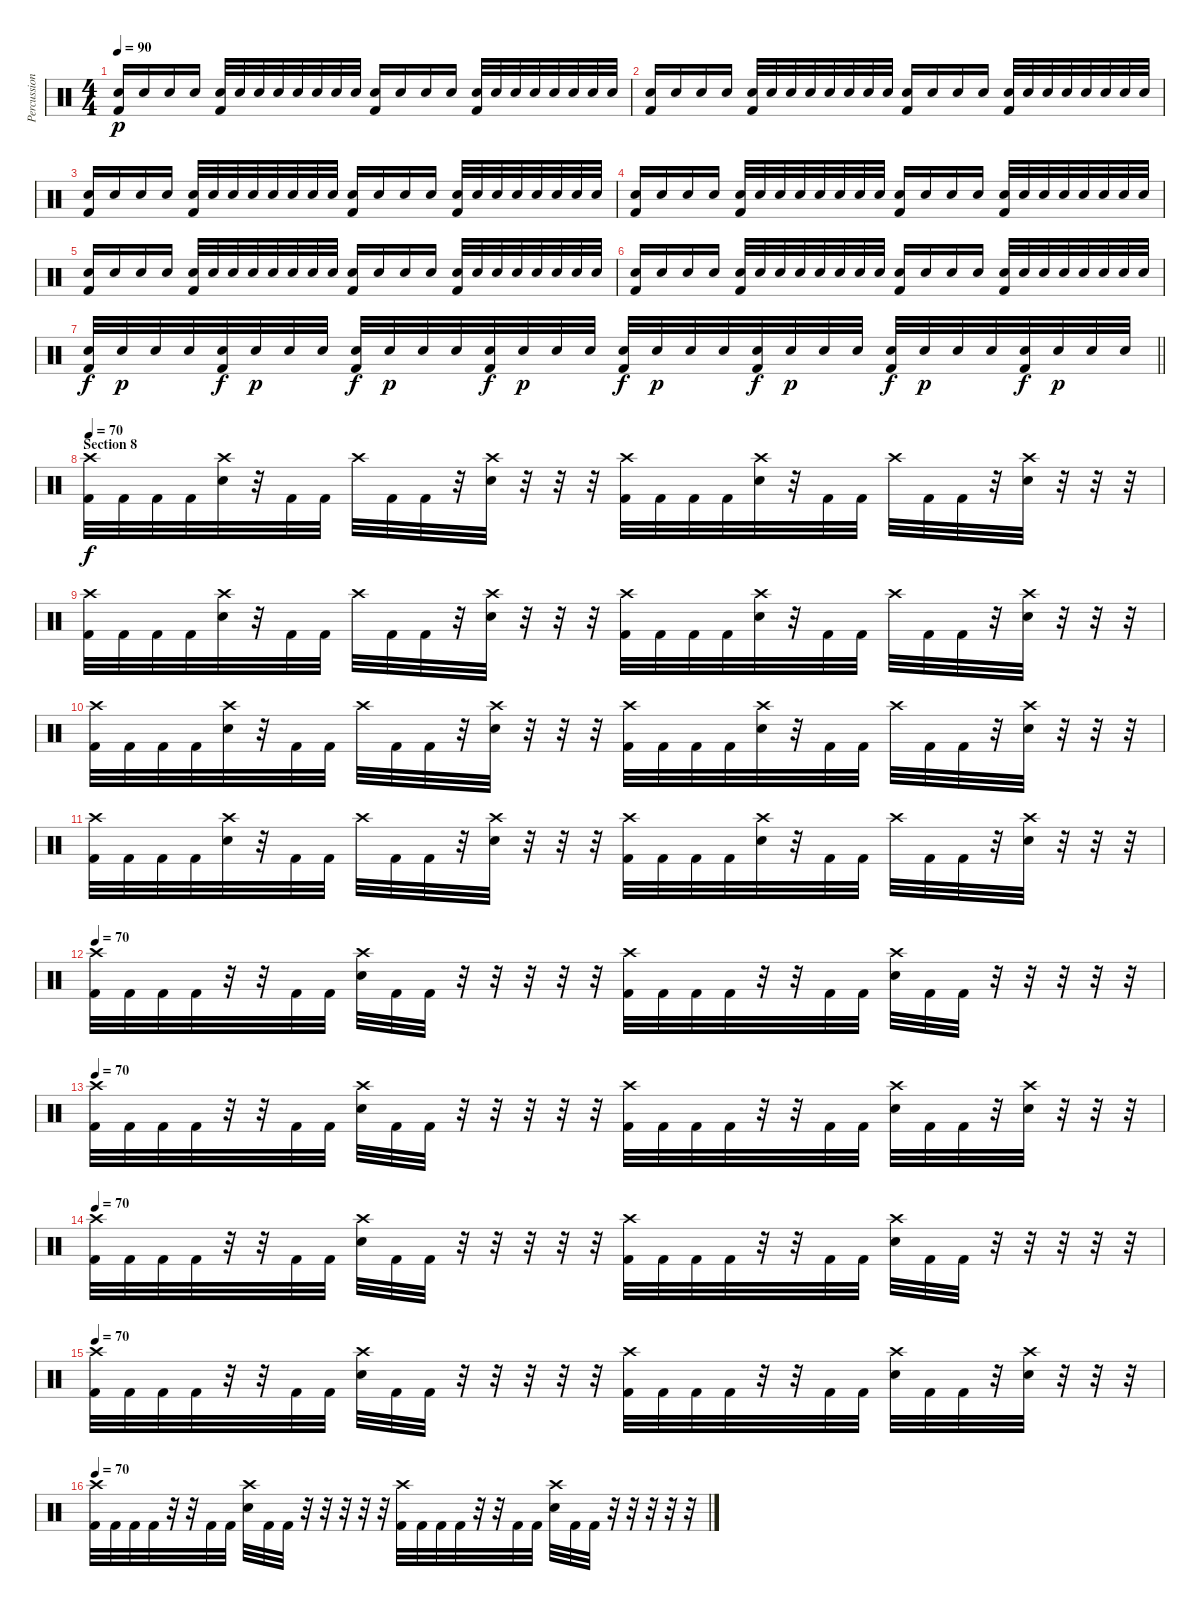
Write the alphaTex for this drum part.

\track ("Percussion" "Percussion") {instrument percussion}
\staff {score}
\articulation defaults
\ts (4 4)
\tempo 90
\clef neutral
\ks c
("Electric Snare (hit)" "Kick (hit) 2").16{dy p} "Electric Snare (hit)".16 "Electric Snare (hit)".16 "Electric Snare (hit)".16 ("Electric Snare (hit)" "Kick (hit) 2").32 "Electric Snare (hit)".32 "Electric Snare (hit)".32 "Electric Snare (hit)".32 "Electric Snare (hit)".32 "Electric Snare (hit)".32 "Electric Snare (hit)".32 "Electric Snare (hit)".32 ("Electric Snare (hit)" "Kick (hit) 2").16 "Electric Snare (hit)".16 "Electric Snare (hit)".16 "Electric Snare (hit)".16 ("Electric Snare (hit)" "Kick (hit) 2").32 "Electric Snare (hit)".32 "Electric Snare (hit)".32 "Electric Snare (hit)".32 "Electric Snare (hit)".32 "Electric Snare (hit)".32 "Electric Snare (hit)".32 "Electric Snare (hit)".32 |
("Electric Snare (hit)" "Kick (hit) 2").16 "Electric Snare (hit)".16 "Electric Snare (hit)".16 "Electric Snare (hit)".16 ("Electric Snare (hit)" "Kick (hit) 2").32 "Electric Snare (hit)".32 "Electric Snare (hit)".32 "Electric Snare (hit)".32 "Electric Snare (hit)".32 "Electric Snare (hit)".32 "Electric Snare (hit)".32 "Electric Snare (hit)".32 ("Electric Snare (hit)" "Kick (hit) 2").16 "Electric Snare (hit)".16 "Electric Snare (hit)".16 "Electric Snare (hit)".16 ("Electric Snare (hit)" "Kick (hit) 2").32 "Electric Snare (hit)".32 "Electric Snare (hit)".32 "Electric Snare (hit)".32 "Electric Snare (hit)".32 "Electric Snare (hit)".32 "Electric Snare (hit)".32 "Electric Snare (hit)".32 |
("Electric Snare (hit)" "Kick (hit) 2").16 "Electric Snare (hit)".16 "Electric Snare (hit)".16 "Electric Snare (hit)".16 ("Electric Snare (hit)" "Kick (hit) 2").32 "Electric Snare (hit)".32 "Electric Snare (hit)".32 "Electric Snare (hit)".32 "Electric Snare (hit)".32 "Electric Snare (hit)".32 "Electric Snare (hit)".32 "Electric Snare (hit)".32 ("Electric Snare (hit)" "Kick (hit) 2").16 "Electric Snare (hit)".16 "Electric Snare (hit)".16 "Electric Snare (hit)".16 ("Electric Snare (hit)" "Kick (hit) 2").32 "Electric Snare (hit)".32 "Electric Snare (hit)".32 "Electric Snare (hit)".32 "Electric Snare (hit)".32 "Electric Snare (hit)".32 "Electric Snare (hit)".32 "Electric Snare (hit)".32 |
("Electric Snare (hit)" "Kick (hit) 2").16 "Electric Snare (hit)".16 "Electric Snare (hit)".16 "Electric Snare (hit)".16 ("Electric Snare (hit)" "Kick (hit) 2").32 "Electric Snare (hit)".32 "Electric Snare (hit)".32 "Electric Snare (hit)".32 "Electric Snare (hit)".32 "Electric Snare (hit)".32 "Electric Snare (hit)".32 "Electric Snare (hit)".32 ("Electric Snare (hit)" "Kick (hit) 2").16 "Electric Snare (hit)".16 "Electric Snare (hit)".16 "Electric Snare (hit)".16 ("Electric Snare (hit)" "Kick (hit) 2").32 "Electric Snare (hit)".32 "Electric Snare (hit)".32 "Electric Snare (hit)".32 "Electric Snare (hit)".32 "Electric Snare (hit)".32 "Electric Snare (hit)".32 "Electric Snare (hit)".32 |
("Electric Snare (hit)" "Kick (hit) 2").16 "Electric Snare (hit)".16 "Electric Snare (hit)".16 "Electric Snare (hit)".16 ("Electric Snare (hit)" "Kick (hit) 2").32 "Electric Snare (hit)".32 "Electric Snare (hit)".32 "Electric Snare (hit)".32 "Electric Snare (hit)".32 "Electric Snare (hit)".32 "Electric Snare (hit)".32 "Electric Snare (hit)".32 ("Electric Snare (hit)" "Kick (hit) 2").16 "Electric Snare (hit)".16 "Electric Snare (hit)".16 "Electric Snare (hit)".16 ("Electric Snare (hit)" "Kick (hit) 2").32 "Electric Snare (hit)".32 "Electric Snare (hit)".32 "Electric Snare (hit)".32 "Electric Snare (hit)".32 "Electric Snare (hit)".32 "Electric Snare (hit)".32 "Electric Snare (hit)".32 |
("Electric Snare (hit)" "Kick (hit) 2").16 "Electric Snare (hit)".16 "Electric Snare (hit)".16 "Electric Snare (hit)".16 ("Electric Snare (hit)" "Kick (hit) 2").32 "Electric Snare (hit)".32 "Electric Snare (hit)".32 "Electric Snare (hit)".32 "Electric Snare (hit)".32 "Electric Snare (hit)".32 "Electric Snare (hit)".32 "Electric Snare (hit)".32 ("Electric Snare (hit)" "Kick (hit) 2").16 "Electric Snare (hit)".16 "Electric Snare (hit)".16 "Electric Snare (hit)".16 ("Electric Snare (hit)" "Kick (hit) 2").32 "Electric Snare (hit)".32 "Electric Snare (hit)".32 "Electric Snare (hit)".32 "Electric Snare (hit)".32 "Electric Snare (hit)".32 "Electric Snare (hit)".32 "Electric Snare (hit)".32 |
\barLineRight lightlight
("Electric Snare (hit)" "Kick (hit) 2").32{dy f} "Electric Snare (hit)".32{dy p} "Electric Snare (hit)".32 "Electric Snare (hit)".32 ("Electric Snare (hit)" "Kick (hit) 2").32{dy f} "Electric Snare (hit)".32{dy p} "Electric Snare (hit)".32 "Electric Snare (hit)".32 ("Electric Snare (hit)" "Kick (hit) 2").32{dy f} "Electric Snare (hit)".32{dy p} "Electric Snare (hit)".32 "Electric Snare (hit)".32 ("Electric Snare (hit)" "Kick (hit) 2").32{dy f} "Electric Snare (hit)".32{dy p} "Electric Snare (hit)".32 "Electric Snare (hit)".32 ("Electric Snare (hit)" "Kick (hit) 2").32{dy f} "Electric Snare (hit)".32{dy p} "Electric Snare (hit)".32 "Electric Snare (hit)".32 ("Electric Snare (hit)" "Kick (hit) 2").32{dy f} "Electric Snare (hit)".32{dy p} "Electric Snare (hit)".32 "Electric Snare (hit)".32 ("Electric Snare (hit)" "Kick (hit) 2").32{dy f} "Electric Snare (hit)".32{dy p} "Electric Snare (hit)".32 "Electric Snare (hit)".32 ("Electric Snare (hit)" "Kick (hit) 2").32{dy f} "Electric Snare (hit)".32{dy p} "Electric Snare (hit)".32 "Electric Snare (hit)".32 |
\section ("" "Section 8")
\tempo 70
("Crash high (hit)" "Kick (hit) 2").32{dy f} "Kick (hit) 2".32 "Kick (hit) 2".32 "Kick (hit) 2".32 ("Crash high (hit)" "Electric Snare (hit)").32 r.32 "Kick (hit) 2".32 "Kick (hit) 2".32 "Crash high (hit)".32 "Kick (hit) 2".32 "Kick (hit) 2".32 r.32 ("Crash high (hit)" "Electric Snare (hit)").32 r.32 r.32 r.32 ("Crash high (hit)" "Kick (hit) 2").32 "Kick (hit) 2".32 "Kick (hit) 2".32 "Kick (hit) 2".32 ("Crash high (hit)" "Electric Snare (hit)").32 r.32 "Kick (hit) 2".32 "Kick (hit) 2".32 "Crash high (hit)".32 "Kick (hit) 2".32 "Kick (hit) 2".32 r.32 ("Crash high (hit)" "Electric Snare (hit)").32 r.32 r.32 r.32 |
("Crash high (hit)" "Kick (hit) 2").32 "Kick (hit) 2".32 "Kick (hit) 2".32 "Kick (hit) 2".32 ("Crash high (hit)" "Electric Snare (hit)").32 r.32 "Kick (hit) 2".32 "Kick (hit) 2".32 "Crash high (hit)".32 "Kick (hit) 2".32 "Kick (hit) 2".32 r.32 ("Crash high (hit)" "Electric Snare (hit)").32 r.32 r.32 r.32 ("Crash high (hit)" "Kick (hit) 2").32 "Kick (hit) 2".32 "Kick (hit) 2".32 "Kick (hit) 2".32 ("Crash high (hit)" "Electric Snare (hit)").32 r.32 "Kick (hit) 2".32 "Kick (hit) 2".32 "Crash high (hit)".32 "Kick (hit) 2".32 "Kick (hit) 2".32 r.32 ("Crash high (hit)" "Electric Snare (hit)").32 r.32 r.32 r.32 |
("Crash high (hit)" "Kick (hit) 2").32 "Kick (hit) 2".32 "Kick (hit) 2".32 "Kick (hit) 2".32 ("Crash high (hit)" "Electric Snare (hit)").32 r.32 "Kick (hit) 2".32 "Kick (hit) 2".32 "Crash high (hit)".32 "Kick (hit) 2".32 "Kick (hit) 2".32 r.32 ("Crash high (hit)" "Electric Snare (hit)").32 r.32 r.32 r.32 ("Crash high (hit)" "Kick (hit) 2").32 "Kick (hit) 2".32 "Kick (hit) 2".32 "Kick (hit) 2".32 ("Crash high (hit)" "Electric Snare (hit)").32 r.32 "Kick (hit) 2".32 "Kick (hit) 2".32 "Crash high (hit)".32 "Kick (hit) 2".32 "Kick (hit) 2".32 r.32 ("Crash high (hit)" "Electric Snare (hit)").32 r.32 r.32 r.32 |
("Crash high (hit)" "Kick (hit) 2").32 "Kick (hit) 2".32 "Kick (hit) 2".32 "Kick (hit) 2".32 ("Crash high (hit)" "Electric Snare (hit)").32 r.32 "Kick (hit) 2".32 "Kick (hit) 2".32 "Crash high (hit)".32 "Kick (hit) 2".32 "Kick (hit) 2".32 r.32 ("Crash high (hit)" "Electric Snare (hit)").32 r.32 r.32 r.32 ("Crash high (hit)" "Kick (hit) 2").32 "Kick (hit) 2".32 "Kick (hit) 2".32 "Kick (hit) 2".32 ("Crash high (hit)" "Electric Snare (hit)").32 r.32 "Kick (hit) 2".32 "Kick (hit) 2".32 "Crash high (hit)".32 "Kick (hit) 2".32 "Kick (hit) 2".32 r.32 ("Crash high (hit)" "Electric Snare (hit)").32 r.32 r.32 r.32 |
\tempo 70
("Crash high (hit)" "Kick (hit) 2").32 "Kick (hit) 2".32 "Kick (hit) 2".32 "Kick (hit) 2".32 r.32 r.32 "Kick (hit) 2".32 "Kick (hit) 2".32 ("Crash high (hit)" "Electric Snare (hit)").32 "Kick (hit) 2".32 "Kick (hit) 2".32 r.32 r.32 r.32 r.32 r.32 ("Crash high (hit)" "Kick (hit) 2").32 "Kick (hit) 2".32 "Kick (hit) 2".32 "Kick (hit) 2".32 r.32 r.32 "Kick (hit) 2".32 "Kick (hit) 2".32 ("Crash high (hit)" "Electric Snare (hit)").32 "Kick (hit) 2".32 "Kick (hit) 2".32 r.32 r.32 r.32 r.32 r.32 |
\tempo 70
("Crash high (hit)" "Kick (hit) 2").32 "Kick (hit) 2".32 "Kick (hit) 2".32 "Kick (hit) 2".32 r.32 r.32 "Kick (hit) 2".32 "Kick (hit) 2".32 ("Crash high (hit)" "Electric Snare (hit)").32 "Kick (hit) 2".32 "Kick (hit) 2".32 r.32 r.32 r.32 r.32 r.32 ("Crash high (hit)" "Kick (hit) 2").32 "Kick (hit) 2".32 "Kick (hit) 2".32 "Kick (hit) 2".32 r.32 r.32 "Kick (hit) 2".32 "Kick (hit) 2".32 ("Crash high (hit)" "Electric Snare (hit)").32 "Kick (hit) 2".32 "Kick (hit) 2".32 r.32 ("Crash high (hit)" "Electric Snare (hit)").32 r.32 r.32 r.32 |
\tempo 70
("Crash high (hit)" "Kick (hit) 2").32 "Kick (hit) 2".32 "Kick (hit) 2".32 "Kick (hit) 2".32 r.32 r.32 "Kick (hit) 2".32 "Kick (hit) 2".32 ("Crash high (hit)" "Electric Snare (hit)").32 "Kick (hit) 2".32 "Kick (hit) 2".32 r.32 r.32 r.32 r.32 r.32 ("Crash high (hit)" "Kick (hit) 2").32 "Kick (hit) 2".32 "Kick (hit) 2".32 "Kick (hit) 2".32 r.32 r.32 "Kick (hit) 2".32 "Kick (hit) 2".32 ("Crash high (hit)" "Electric Snare (hit)").32 "Kick (hit) 2".32 "Kick (hit) 2".32 r.32 r.32 r.32 r.32 r.32 |
\tempo 70
("Crash high (hit)" "Kick (hit) 2").32 "Kick (hit) 2".32 "Kick (hit) 2".32 "Kick (hit) 2".32 r.32 r.32 "Kick (hit) 2".32 "Kick (hit) 2".32 ("Crash high (hit)" "Electric Snare (hit)").32 "Kick (hit) 2".32 "Kick (hit) 2".32 r.32 r.32 r.32 r.32 r.32 ("Crash high (hit)" "Kick (hit) 2").32 "Kick (hit) 2".32 "Kick (hit) 2".32 "Kick (hit) 2".32 r.32 r.32 "Kick (hit) 2".32 "Kick (hit) 2".32 ("Crash high (hit)" "Electric Snare (hit)").32 "Kick (hit) 2".32 "Kick (hit) 2".32 r.32 ("Crash high (hit)" "Electric Snare (hit)").32 r.32 r.32 r.32 |
\tempo 70
("Crash high (hit)" "Kick (hit) 2").32{volume 0} "Kick (hit) 2".32 "Kick (hit) 2".32 "Kick (hit) 2".32 r.32 r.32 "Kick (hit) 2".32 "Kick (hit) 2".32 ("Crash high (hit)" "Electric Snare (hit)").32 "Kick (hit) 2".32 "Kick (hit) 2".32 r.32 r.32 r.32 r.32 r.32 ("Crash high (hit)" "Kick (hit) 2").32 "Kick (hit) 2".32 "Kick (hit) 2".32 "Kick (hit) 2".32 r.32 r.32 "Kick (hit) 2".32 "Kick (hit) 2".32 ("Crash high (hit)" "Electric Snare (hit)").32 "Kick (hit) 2".32 "Kick (hit) 2".32 r.32 r.32 r.32 r.32 r.32
